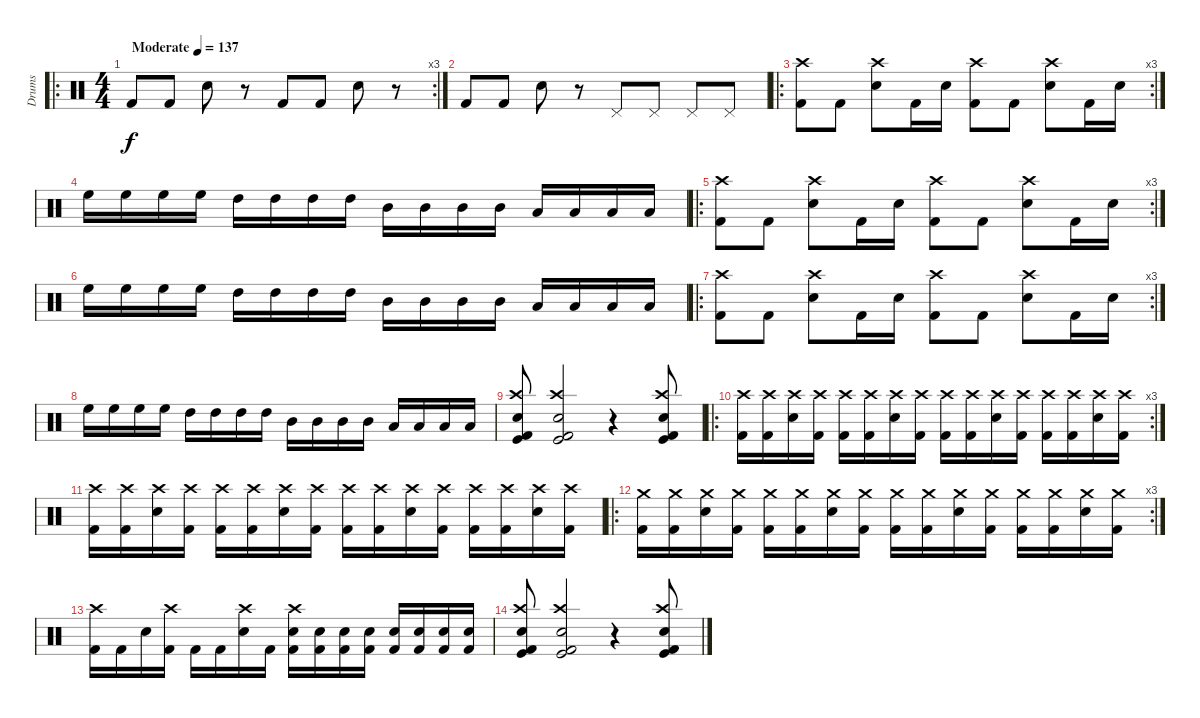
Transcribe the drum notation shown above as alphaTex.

\track ("Drums" "Drums") {instrument percussion}
\staff {score}
\articulation defaults
\ro
\rc 3
\ts (4 4)
\tempo (137 "Moderate")
\clef neutral
\ks c "Kick (hit) 2".8{dy f} "Kick (hit) 2".8 "Snare (hit) 2".8
r.8 "Kick (hit) 2".8 "Kick (hit) 2".8 "Snare (hit) 2".8 r.8 |
"Kick (hit) 2".8 "Kick (hit) 2".8 "Snare (hit) 2".8 r.8 "Pedal Hi-Hat (hit)".8 "Pedal Hi-Hat (hit)".8 "Pedal Hi-Hat (hit)".8 "Pedal Hi-Hat (hit)".8 |
\ro
\rc 3
("Crash high (hit)" "Kick (hit) 2").8 "Kick (hit) 2".8 ("Crash high (hit)" "Snare (hit) 2").8 "Kick (hit) 2".16 "Snare (hit) 2".16 ("Crash high (hit)" "Kick (hit) 2").8 "Kick (hit) 2".8 ("Crash high (hit)" "Snare (hit) 2").8 "Kick (hit) 2".16 "Snare (hit) 2".16 |
"High Floor Tom (hit)".16 "High Floor Tom (hit)".16 "High Floor Tom (hit)".16 "High Floor Tom (hit)".16 "High Tom (hit)".16 "High Tom (hit)".16 "High Tom (hit)".16 "High Tom (hit)".16 "Mid Tom (hit)".16 "Mid Tom (hit)".16 "Mid Tom (hit)".16 "Mid Tom (hit)".16 "Low Tom (hit)".16 "Low Tom (hit)".16 "Low Tom (hit)".16 "Low Tom (hit)".16 |
\ro
\rc 3
("Crash high (hit)" "Kick (hit) 2").8 "Kick (hit) 2".8 ("Crash high (hit)" "Snare (hit) 2").8 "Kick (hit) 2".16 "Snare (hit) 2".16 ("Crash high (hit)" "Kick (hit) 2").8 "Kick (hit) 2".8 ("Crash high (hit)" "Snare (hit) 2").8 "Kick (hit) 2".16 "Snare (hit) 2".16 |
"High Floor Tom (hit)".16 "High Floor Tom (hit)".16 "High Floor Tom (hit)".16 "High Floor Tom (hit)".16 "High Tom (hit)".16 "High Tom (hit)".16 "High Tom (hit)".16 "High Tom (hit)".16 "Mid Tom (hit)".16 "Mid Tom (hit)".16 "Mid Tom (hit)".16 "Mid Tom (hit)".16 "Low Tom (hit)".16 "Low Tom (hit)".16 "Low Tom (hit)".16 "Low Tom (hit)".16 |
\ro
\rc 3
("Crash high (hit)" "Kick (hit) 2").8 "Kick (hit) 2".8 ("Crash high (hit)" "Snare (hit) 2").8 "Kick (hit) 2".16 "Snare (hit) 2".16 ("Crash high (hit)" "Kick (hit) 2").8 "Kick (hit) 2".8 ("Crash high (hit)" "Snare (hit) 2").8 "Kick (hit) 2".16 "Snare (hit) 2".16 |
"High Floor Tom (hit)".16 "High Floor Tom (hit)".16 "High Floor Tom (hit)".16 "High Floor Tom (hit)".16 "High Tom (hit)".16 "High Tom (hit)".16 "High Tom (hit)".16 "High Tom (hit)".16 "Mid Tom (hit)".16 "Mid Tom (hit)".16 "Mid Tom (hit)".16 "Mid Tom (hit)".16 "Low Tom (hit)".16 "Low Tom (hit)".16 "Low Tom (hit)".16 "Low Tom (hit)".16 |
("Crash high (hit)" "Snare (hit) 2" "Kick (hit) 2" "Kick (hit)").8 ("Crash high (hit)" "Snare (hit) 2" "Kick (hit) 2" "Kick (hit)").2 r.4 ("Crash high (hit)" "Snare (hit) 2" "Kick (hit) 2" "Kick (hit)").8 |
\ro
\rc 3
("Crash high (hit)" "Kick (hit) 2").16 ("Crash high (hit)" "Kick (hit) 2").16 ("Crash high (hit)" "Snare (hit) 2").16 ("Crash high (hit)" "Kick (hit) 2").16 ("Crash high (hit)" "Kick (hit) 2").16 ("Crash high (hit)" "Kick (hit) 2").16 ("Crash high (hit)" "Snare (hit) 2").16 ("Crash high (hit)" "Kick (hit) 2").16 ("Crash high (hit)" "Kick (hit) 2").16 ("Crash high (hit)" "Kick (hit) 2").16 ("Crash high (hit)" "Snare (hit) 2").16 ("Crash high (hit)" "Kick (hit) 2").16 ("Crash high (hit)" "Kick (hit) 2").16 ("Crash high (hit)" "Kick (hit) 2").16 ("Crash high (hit)" "Snare (hit) 2").16 ("Crash high (hit)" "Kick (hit) 2").16 |
("Crash high (hit)" "Kick (hit) 2").16 ("Crash high (hit)" "Kick (hit) 2").16 ("Crash high (hit)" "Snare (hit) 2").16 ("Crash high (hit)" "Kick (hit) 2").16 ("Crash high (hit)" "Kick (hit) 2").16 ("Crash high (hit)" "Kick (hit) 2").16 ("Crash high (hit)" "Snare (hit) 2").16 ("Crash high (hit)" "Kick (hit) 2").16 ("Crash high (hit)" "Kick (hit) 2").16 ("Crash high (hit)" "Kick (hit) 2").16 ("Crash high (hit)" "Snare (hit) 2").16 ("Crash high (hit)" "Kick (hit) 2").16 ("Crash high (hit)" "Kick (hit) 2").16 ("Crash high (hit)" "Kick (hit) 2").16 ("Crash high (hit)" "Snare (hit) 2").16 ("Crash high (hit)" "Kick (hit) 2").16 |
\ro
\rc 3
("Crash medium (hit)" "Kick (hit) 2").16 ("Crash medium (hit)" "Kick (hit) 2").16 ("Crash medium (hit)" "Snare (hit) 2").16 ("Crash medium (hit)" "Kick (hit) 2").16 ("Crash medium (hit)" "Kick (hit) 2").16 ("Crash medium (hit)" "Kick (hit) 2").16 ("Crash medium (hit)" "Snare (hit) 2").16 ("Crash medium (hit)" "Kick (hit) 2").16 ("Crash medium (hit)" "Kick (hit) 2").16 ("Crash medium (hit)" "Kick (hit) 2").16 ("Crash medium (hit)" "Snare (hit) 2").16 ("Crash medium (hit)" "Kick (hit) 2").16 ("Crash medium (hit)" "Kick (hit) 2").16 ("Crash medium (hit)" "Kick (hit) 2").16 ("Crash medium (hit)" "Snare (hit) 2").16 ("Crash medium (hit)" "Kick (hit) 2").16 |
("Crash high (hit)" "Kick (hit) 2").16 "Kick (hit) 2".16 "Snare (hit) 2".16 ("Crash high (hit)" "Kick (hit) 2").16 "Kick (hit) 2".16 "Kick (hit) 2".16 ("Crash high (hit)" "Snare (hit) 2").16 "Kick (hit) 2".16 ("Crash high (hit)" "Snare (hit) 2" "Kick (hit) 2").16 ("Snare (hit) 2" "Kick (hit) 2").16 ("Snare (hit) 2" "Kick (hit) 2").16 ("Snare (hit) 2" "Kick (hit) 2").16 ("Snare (hit) 2" "Kick (hit) 2").16 ("Snare (hit) 2" "Kick (hit) 2").16 ("Snare (hit) 2" "Kick (hit) 2").16 ("Snare (hit) 2" "Kick (hit) 2").16 |
("Crash high (hit)" "Snare (hit) 2" "Kick (hit) 2" "Kick (hit)").8 ("Crash high (hit)" "Snare (hit) 2" "Kick (hit) 2" "Kick (hit)").2 r.4 ("Crash high (hit)" "Snare (hit) 2" "Kick (hit) 2" "Kick (hit)").8
